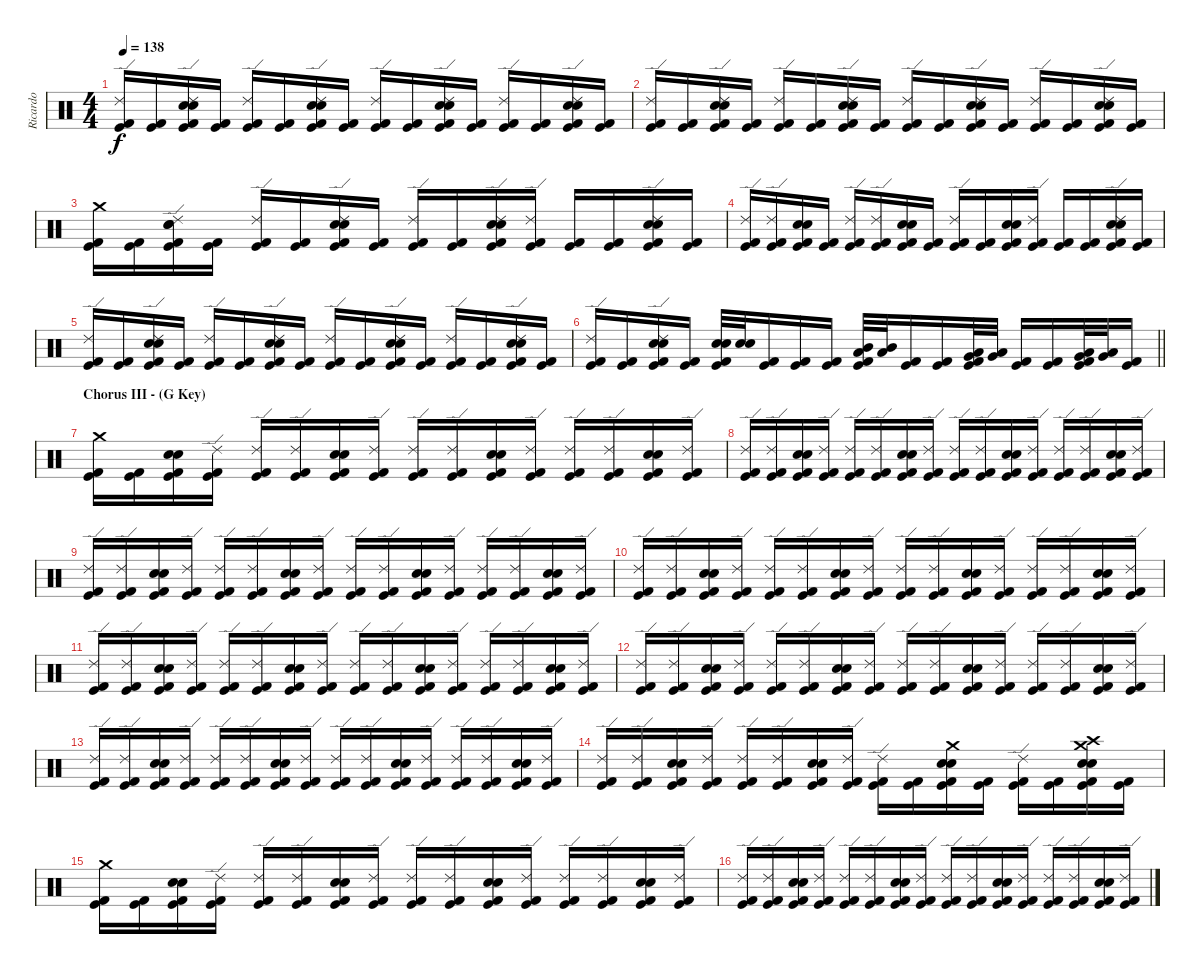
\track ("Ricardo" "Ricardo") {instrument percussion}
\staff {score}
\articulation defaults
\ts (4 4)
\tempo 138
\clef neutral
\ks c
("Ride (edge) 2" "Kick (hit) 2" "Kick (hit)").16{dy f} ("Kick (hit) 2" "Kick (hit)").16 ("Electric Snare (hit)" "Snare (hit) 2" "Ride (edge) 2" "Kick (hit) 2" "Kick (hit)").16 ("Kick (hit) 2" "Kick (hit)").16 ("Ride (edge) 2" "Kick (hit) 2" "Kick (hit)").16 ("Kick (hit) 2" "Kick (hit)").16 ("Electric Snare (hit)" "Snare (hit) 2" "Ride (edge) 2" "Kick (hit) 2" "Kick (hit)").16 ("Kick (hit) 2" "Kick (hit)").16 ("Ride (edge) 2" "Kick (hit) 2" "Kick (hit)").16 ("Kick (hit) 2" "Kick (hit)").16 ("Electric Snare (hit)" "Snare (hit) 2" "Ride (edge) 2" "Kick (hit) 2" "Kick (hit)").16 ("Kick (hit) 2" "Kick (hit)").16 ("Ride (edge) 2" "Kick (hit) 2" "Kick (hit)").16 ("Kick (hit) 2" "Kick (hit)").16 ("Electric Snare (hit)" "Snare (hit) 2" "Ride (edge) 2" "Kick (hit) 2" "Kick (hit)").16 ("Kick (hit) 2" "Kick (hit)").16 |
("Ride (edge) 2" "Kick (hit) 2" "Kick (hit)").16 ("Kick (hit) 2" "Kick (hit)").16 ("Electric Snare (hit)" "Snare (hit) 2" "Ride (edge) 2" "Kick (hit) 2" "Kick (hit)").16 ("Kick (hit) 2" "Kick (hit)").16 ("Ride (edge) 2" "Kick (hit) 2" "Kick (hit)").16 ("Kick (hit) 2" "Kick (hit)").16 ("Electric Snare (hit)" "Snare (hit) 2" "Ride (edge) 2" "Kick (hit) 2" "Kick (hit)").16 ("Kick (hit) 2" "Kick (hit)").16 ("Ride (edge) 2" "Kick (hit) 2" "Kick (hit)").16 ("Kick (hit) 2" "Kick (hit)").16 ("Electric Snare (hit)" "Snare (hit) 2" "Ride (edge) 2" "Kick (hit) 2" "Kick (hit)").16 ("Kick (hit) 2" "Kick (hit)").16 ("Ride (edge) 2" "Kick (hit) 2" "Kick (hit)").16 ("Kick (hit) 2" "Kick (hit)").16 ("Electric Snare (hit)" "Snare (hit) 2" "Ride (edge) 2" "Kick (hit) 2" "Kick (hit)").16 ("Kick (hit) 2" "Kick (hit)").16 |
("Crash medium (hit)" "Kick (hit) 2" "Kick (hit)").16 ("Kick (hit) 2" "Kick (hit)").16 ("Electric Snare (hit)" "Snare (hit) 2" "Ride (edge) 2" "Kick (hit) 2" "Kick (hit)").16 ("Kick (hit) 2" "Kick (hit)").16 ("Ride (edge) 2" "Kick (hit) 2" "Kick (hit)").16 ("Kick (hit) 2" "Kick (hit)").16 ("Electric Snare (hit)" "Snare (hit) 2" "Ride (edge) 2" "Kick (hit) 2" "Kick (hit)").16 ("Kick (hit) 2" "Kick (hit)").16 ("Ride (edge) 2" "Kick (hit) 2" "Kick (hit)").16 ("Kick (hit) 2" "Kick (hit)").16 ("Electric Snare (hit)" "Snare (hit) 2" "Ride (edge) 2" "Kick (hit) 2" "Kick (hit)").16 ("Ride (edge) 2" "Kick (hit) 2" "Kick (hit)").16 ("Kick (hit) 2" "Kick (hit)").16 ("Kick (hit) 2" "Kick (hit)").16 ("Electric Snare (hit)" "Snare (hit) 2" "Ride (edge) 2" "Kick (hit) 2" "Kick (hit)").16 ("Kick (hit) 2" "Kick (hit)").16 |
("Ride (edge) 2" "Kick (hit) 2" "Kick (hit)").16 ("Ride (edge) 2" "Kick (hit) 2" "Kick (hit)").16 ("Electric Snare (hit)" "Snare (hit) 2" "Kick (hit) 2" "Kick (hit)").16 ("Kick (hit) 2" "Kick (hit)").16 ("Ride (edge) 2" "Kick (hit) 2" "Kick (hit)").16 ("Ride (edge) 2" "Kick (hit) 2" "Kick (hit)").16 ("Electric Snare (hit)" "Snare (hit) 2" "Kick (hit) 2" "Kick (hit)").16 ("Kick (hit) 2" "Kick (hit)").16 ("Ride (edge) 2" "Kick (hit) 2" "Kick (hit)").16 ("Kick (hit) 2" "Kick (hit)").16 ("Electric Snare (hit)" "Snare (hit) 2" "Kick (hit) 2" "Kick (hit)").16 ("Ride (edge) 2" "Kick (hit) 2" "Kick (hit)").16 ("Kick (hit) 2" "Kick (hit)").16 ("Kick (hit) 2" "Kick (hit)").16 ("Electric Snare (hit)" "Snare (hit) 2" "Ride (edge) 2" "Kick (hit) 2" "Kick (hit)").16 ("Kick (hit) 2" "Kick (hit)").16 |
("Ride (edge) 2" "Kick (hit) 2" "Kick (hit)").16 ("Kick (hit) 2" "Kick (hit)").16 ("Electric Snare (hit)" "Snare (hit) 2" "Ride (edge) 2" "Kick (hit) 2" "Kick (hit)").16 ("Kick (hit) 2" "Kick (hit)").16 ("Ride (edge) 2" "Kick (hit) 2" "Kick (hit)").16 ("Kick (hit) 2" "Kick (hit)").16 ("Electric Snare (hit)" "Snare (hit) 2" "Ride (edge) 2" "Kick (hit) 2" "Kick (hit)").16 ("Kick (hit) 2" "Kick (hit)").16 ("Ride (edge) 2" "Kick (hit) 2" "Kick (hit)").16 ("Kick (hit) 2" "Kick (hit)").16 ("Electric Snare (hit)" "Snare (hit) 2" "Ride (edge) 2" "Kick (hit) 2" "Kick (hit)").16 ("Kick (hit) 2" "Kick (hit)").16 ("Ride (edge) 2" "Kick (hit) 2" "Kick (hit)").16 ("Kick (hit) 2" "Kick (hit)").16 ("Electric Snare (hit)" "Snare (hit) 2" "Ride (edge) 2" "Kick (hit) 2" "Kick (hit)").16 ("Kick (hit) 2" "Kick (hit)").16 |
\barLineRight lightlight
("Ride (edge) 2" "Kick (hit) 2" "Kick (hit)").16 ("Kick (hit) 2" "Kick (hit)").16 ("Electric Snare (hit)" "Snare (hit) 2" "Ride (edge) 2" "Kick (hit) 2" "Kick (hit)").16 ("Kick (hit) 2" "Kick (hit)").16 ("Electric Snare (hit)" "Snare (hit) 2" "Kick (hit) 2" "Kick (hit)").32 ("Snare (hit) 2" "Electric Snare (hit)").32 ("Kick (hit) 2" "Kick (hit)").16 ("Kick (hit) 2" "Kick (hit)").16 ("Kick (hit) 2" "Kick (hit)").16 ("Low Tom (hit)" "Mid Tom (hit)" "Kick (hit) 2" "Kick (hit)").32 ("Mid Tom (hit)" "Low Tom (hit)").32 ("Kick (hit) 2" "Kick (hit)").16 ("Kick (hit) 2" "Kick (hit)").16 ("Very Low Tom (hit)" "Low Tom (hit)" "Kick (hit) 2" "Kick (hit)").32 ("Low Tom (hit)" "Very Low Tom (hit)").32 ("Kick (hit) 2" "Kick (hit)").16 ("Kick (hit) 2" "Kick (hit)").16 ("Low Floor Tom (hit)" "Very Low Tom (hit)" "Kick (hit) 2" "Kick (hit)").32 ("Very Low Tom (hit)" "Low Floor Tom (hit)").32 ("Kick (hit) 2" "Kick (hit)").16 |
\section ("" "Chorus III - (G Key)")
("Crash medium (hit)" "Kick (hit) 2" "Kick (hit)").16 ("Kick (hit) 2" "Kick (hit)").16 ("Electric Snare (hit)" "Snare (hit) 2" "Kick (hit) 2" "Kick (hit)").16 ("Ride (edge) 2" "Kick (hit) 2" "Kick (hit)").16 ("Ride (edge) 2" "Kick (hit) 2" "Kick (hit)").16 ("Ride (edge) 2" "Kick (hit) 2" "Kick (hit)").16 ("Snare (hit) 2" "Electric Snare (hit)" "Kick (hit) 2" "Kick (hit)").16 ("Ride (edge) 2" "Kick (hit) 2" "Kick (hit)").16 ("Ride (edge) 2" "Kick (hit) 2" "Kick (hit)").16 ("Ride (edge) 2" "Kick (hit) 2" "Kick (hit)").16 ("Electric Snare (hit)" "Snare (hit) 2" "Kick (hit) 2" "Kick (hit)").16 ("Ride (edge) 2" "Kick (hit) 2" "Kick (hit)").16 ("Ride (edge) 2" "Kick (hit) 2" "Kick (hit)").16 ("Ride (edge) 2" "Kick (hit) 2" "Kick (hit)").16 ("Electric Snare (hit)" "Snare (hit) 2" "Kick (hit) 2" "Kick (hit)").16 ("Ride (edge) 2" "Kick (hit) 2" "Kick (hit)").16 |
("Ride (edge) 2" "Kick (hit) 2" "Kick (hit)").16 ("Ride (edge) 2" "Kick (hit) 2" "Kick (hit)").16 ("Electric Snare (hit)" "Snare (hit) 2" "Kick (hit) 2" "Kick (hit)").16 ("Ride (edge) 2" "Kick (hit) 2" "Kick (hit)").16 ("Ride (edge) 2" "Kick (hit) 2" "Kick (hit)").16 ("Ride (edge) 2" "Kick (hit) 2" "Kick (hit)").16 ("Electric Snare (hit)" "Snare (hit) 2" "Kick (hit) 2" "Kick (hit)").16 ("Ride (edge) 2" "Kick (hit) 2" "Kick (hit)").16 ("Ride (edge) 2" "Kick (hit) 2" "Kick (hit)").16 ("Ride (edge) 2" "Kick (hit) 2" "Kick (hit)").16 ("Electric Snare (hit)" "Snare (hit) 2" "Kick (hit) 2" "Kick (hit)").16 ("Ride (edge) 2" "Kick (hit) 2" "Kick (hit)").16 ("Ride (edge) 2" "Kick (hit) 2" "Kick (hit)").16 ("Ride (edge) 2" "Kick (hit) 2" "Kick (hit)").16 ("Electric Snare (hit)" "Snare (hit) 2" "Kick (hit) 2" "Kick (hit)").16 ("Ride (edge) 2" "Kick (hit) 2" "Kick (hit)").16 |
("Ride (edge) 2" "Kick (hit) 2" "Kick (hit)").16 ("Ride (edge) 2" "Kick (hit) 2" "Kick (hit)").16 ("Electric Snare (hit)" "Snare (hit) 2" "Kick (hit) 2" "Kick (hit)").16 ("Ride (edge) 2" "Kick (hit) 2" "Kick (hit)").16 ("Ride (edge) 2" "Kick (hit) 2" "Kick (hit)").16 ("Ride (edge) 2" "Kick (hit) 2" "Kick (hit)").16 ("Electric Snare (hit)" "Snare (hit) 2" "Kick (hit) 2" "Kick (hit)").16 ("Ride (edge) 2" "Kick (hit) 2" "Kick (hit)").16 ("Ride (edge) 2" "Kick (hit) 2" "Kick (hit)").16 ("Ride (edge) 2" "Kick (hit) 2" "Kick (hit)").16 ("Electric Snare (hit)" "Snare (hit) 2" "Kick (hit) 2" "Kick (hit)").16 ("Ride (edge) 2" "Kick (hit) 2" "Kick (hit)").16 ("Ride (edge) 2" "Kick (hit) 2" "Kick (hit)").16 ("Ride (edge) 2" "Kick (hit) 2" "Kick (hit)").16 ("Electric Snare (hit)" "Snare (hit) 2" "Kick (hit) 2" "Kick (hit)").16 ("Ride (edge) 2" "Kick (hit) 2" "Kick (hit)").16 |
("Ride (edge) 2" "Kick (hit) 2" "Kick (hit)").16 ("Ride (edge) 2" "Kick (hit) 2" "Kick (hit)").16 ("Electric Snare (hit)" "Snare (hit) 2" "Kick (hit) 2" "Kick (hit)").16 ("Ride (edge) 2" "Kick (hit) 2" "Kick (hit)").16 ("Ride (edge) 2" "Kick (hit) 2" "Kick (hit)").16 ("Ride (edge) 2" "Kick (hit) 2" "Kick (hit)").16 ("Electric Snare (hit)" "Snare (hit) 2" "Kick (hit) 2" "Kick (hit)").16 ("Ride (edge) 2" "Kick (hit) 2" "Kick (hit)").16 ("Ride (edge) 2" "Kick (hit) 2" "Kick (hit)").16 ("Ride (edge) 2" "Kick (hit) 2" "Kick (hit)").16 ("Electric Snare (hit)" "Snare (hit) 2" "Kick (hit) 2" "Kick (hit)").16 ("Ride (edge) 2" "Kick (hit) 2" "Kick (hit)").16 ("Ride (edge) 2" "Kick (hit) 2" "Kick (hit)").16 ("Ride (edge) 2" "Kick (hit) 2" "Kick (hit)").16 ("Electric Snare (hit)" "Snare (hit) 2" "Kick (hit) 2" "Kick (hit)").16 ("Ride (edge) 2" "Kick (hit) 2" "Kick (hit)").16 |
("Ride (edge) 2" "Kick (hit) 2" "Kick (hit)").16 ("Ride (edge) 2" "Kick (hit) 2" "Kick (hit)").16 ("Electric Snare (hit)" "Snare (hit) 2" "Kick (hit) 2" "Kick (hit)").16 ("Ride (edge) 2" "Kick (hit) 2" "Kick (hit)").16 ("Ride (edge) 2" "Kick (hit) 2" "Kick (hit)").16 ("Ride (edge) 2" "Kick (hit) 2" "Kick (hit)").16 ("Electric Snare (hit)" "Snare (hit) 2" "Kick (hit) 2" "Kick (hit)").16 ("Ride (edge) 2" "Kick (hit) 2" "Kick (hit)").16 ("Ride (edge) 2" "Kick (hit) 2" "Kick (hit)").16 ("Ride (edge) 2" "Kick (hit) 2" "Kick (hit)").16 ("Electric Snare (hit)" "Snare (hit) 2" "Kick (hit) 2" "Kick (hit)").16 ("Ride (edge) 2" "Kick (hit) 2" "Kick (hit)").16 ("Ride (edge) 2" "Kick (hit) 2" "Kick (hit)").16 ("Ride (edge) 2" "Kick (hit) 2" "Kick (hit)").16 ("Electric Snare (hit)" "Snare (hit) 2" "Kick (hit) 2" "Kick (hit)").16 ("Ride (edge) 2" "Kick (hit) 2" "Kick (hit)").16 |
("Ride (edge) 2" "Kick (hit) 2" "Kick (hit)").16 ("Ride (edge) 2" "Kick (hit) 2" "Kick (hit)").16 ("Electric Snare (hit)" "Snare (hit) 2" "Kick (hit) 2" "Kick (hit)").16 ("Ride (edge) 2" "Kick (hit) 2" "Kick (hit)").16 ("Ride (edge) 2" "Kick (hit) 2" "Kick (hit)").16 ("Ride (edge) 2" "Kick (hit) 2" "Kick (hit)").16 ("Electric Snare (hit)" "Snare (hit) 2" "Kick (hit) 2" "Kick (hit)").16 ("Ride (edge) 2" "Kick (hit) 2" "Kick (hit)").16 ("Ride (edge) 2" "Kick (hit) 2" "Kick (hit)").16 ("Ride (edge) 2" "Kick (hit) 2" "Kick (hit)").16 ("Electric Snare (hit)" "Snare (hit) 2" "Kick (hit) 2" "Kick (hit)").16 ("Ride (edge) 2" "Kick (hit) 2" "Kick (hit)").16 ("Ride (edge) 2" "Kick (hit) 2" "Kick (hit)").16 ("Ride (edge) 2" "Kick (hit) 2" "Kick (hit)").16 ("Electric Snare (hit)" "Snare (hit) 2" "Kick (hit) 2" "Kick (hit)").16 ("Ride (edge) 2" "Kick (hit) 2" "Kick (hit)").16 |
("Ride (edge) 2" "Kick (hit) 2" "Kick (hit)").16 ("Ride (edge) 2" "Kick (hit) 2" "Kick (hit)").16 ("Electric Snare (hit)" "Snare (hit) 2" "Kick (hit) 2" "Kick (hit)").16 ("Ride (edge) 2" "Kick (hit) 2" "Kick (hit)").16 ("Ride (edge) 2" "Kick (hit) 2" "Kick (hit)").16 ("Ride (edge) 2" "Kick (hit) 2" "Kick (hit)").16 ("Electric Snare (hit)" "Snare (hit) 2" "Kick (hit) 2" "Kick (hit)").16 ("Ride (edge) 2" "Kick (hit) 2" "Kick (hit)").16 ("Ride (edge) 2" "Kick (hit) 2" "Kick (hit)").16 ("Ride (edge) 2" "Kick (hit) 2" "Kick (hit)").16 ("Electric Snare (hit)" "Snare (hit) 2" "Kick (hit) 2" "Kick (hit)").16 ("Ride (edge) 2" "Kick (hit) 2" "Kick (hit)").16 ("Ride (edge) 2" "Kick (hit) 2" "Kick (hit)").16 ("Ride (edge) 2" "Kick (hit) 2" "Kick (hit)").16 ("Electric Snare (hit)" "Snare (hit) 2" "Kick (hit) 2" "Kick (hit)").16 ("Ride (edge) 2" "Kick (hit) 2" "Kick (hit)").16 |
("Ride (edge) 2" "Kick (hit) 2" "Kick (hit)").16 ("Ride (edge) 2" "Kick (hit) 2" "Kick (hit)").16 ("Electric Snare (hit)" "Snare (hit) 2" "Kick (hit) 2" "Kick (hit)").16 ("Ride (edge) 2" "Kick (hit) 2" "Kick (hit)").16 ("Ride (edge) 2" "Kick (hit) 2" "Kick (hit)").16 ("Ride (edge) 2" "Kick (hit) 2" "Kick (hit)").16 ("Electric Snare (hit)" "Snare (hit) 2" "Kick (hit) 2" "Kick (hit)").16 ("Ride (edge) 2" "Kick (hit) 2" "Kick (hit)").16 ("Ride (edge) 2" "Kick (hit) 2" "Kick (hit)").16 ("Kick (hit) 2" "Kick (hit)").16 ("Crash medium (hit)" "Electric Snare (hit)" "Snare (hit) 2" "Kick (hit) 2" "Kick (hit)").16 ("Kick (hit) 2" "Kick (hit)").16 ("Ride (edge) 2" "Kick (hit) 2" "Kick (hit)").16 ("Kick (hit) 2" "Kick (hit)").16 ("Crash medium (hit)" "Crash high (hit)" "Electric Snare (hit)" "Snare (hit) 2" "Kick (hit) 2" "Kick (hit)").16 ("Kick (hit) 2" "Kick (hit)").16 |
("Crash medium (hit)" "Kick (hit) 2" "Kick (hit)").16 ("Kick (hit) 2" "Kick (hit)").16 ("Electric Snare (hit)" "Snare (hit) 2" "Kick (hit) 2" "Kick (hit)").16 ("Ride (edge) 2" "Kick (hit) 2" "Kick (hit)").16 ("Ride (edge) 2" "Kick (hit) 2" "Kick (hit)").16 ("Ride (edge) 2" "Kick (hit) 2" "Kick (hit)").16 ("Electric Snare (hit)" "Snare (hit) 2" "Kick (hit) 2" "Kick (hit)").16 ("Ride (edge) 2" "Kick (hit) 2" "Kick (hit)").16 ("Ride (edge) 2" "Kick (hit) 2" "Kick (hit)").16 ("Ride (edge) 2" "Kick (hit) 2" "Kick (hit)").16 ("Electric Snare (hit)" "Snare (hit) 2" "Kick (hit) 2" "Kick (hit)").16 ("Ride (edge) 2" "Kick (hit) 2" "Kick (hit)").16 ("Ride (edge) 2" "Kick (hit) 2" "Kick (hit)").16 ("Ride (edge) 2" "Kick (hit) 2" "Kick (hit)").16 ("Electric Snare (hit)" "Snare (hit) 2" "Kick (hit) 2" "Kick (hit)").16 ("Ride (edge) 2" "Kick (hit) 2" "Kick (hit)").16 |
("Ride (edge) 2" "Kick (hit) 2" "Kick (hit)").16 ("Ride (edge) 2" "Kick (hit) 2" "Kick (hit)").16 ("Electric Snare (hit)" "Snare (hit) 2" "Kick (hit) 2" "Kick (hit)").16 ("Ride (edge) 2" "Kick (hit) 2" "Kick (hit)").16 ("Ride (edge) 2" "Kick (hit) 2" "Kick (hit)").16 ("Ride (edge) 2" "Kick (hit) 2" "Kick (hit)").16 ("Electric Snare (hit)" "Snare (hit) 2" "Kick (hit) 2" "Kick (hit)").16 ("Ride (edge) 2" "Kick (hit) 2" "Kick (hit)").16 ("Ride (edge) 2" "Kick (hit) 2" "Kick (hit)").16 ("Ride (edge) 2" "Kick (hit) 2" "Kick (hit)").16 ("Electric Snare (hit)" "Snare (hit) 2" "Kick (hit) 2" "Kick (hit)").16 ("Ride (edge) 2" "Kick (hit) 2" "Kick (hit)").16 ("Ride (edge) 2" "Kick (hit) 2" "Kick (hit)").16 ("Ride (edge) 2" "Kick (hit) 2" "Kick (hit)").16 ("Electric Snare (hit)" "Snare (hit) 2" "Kick (hit) 2" "Kick (hit)").16 ("Ride (edge) 2" "Kick (hit) 2" "Kick (hit)").16
